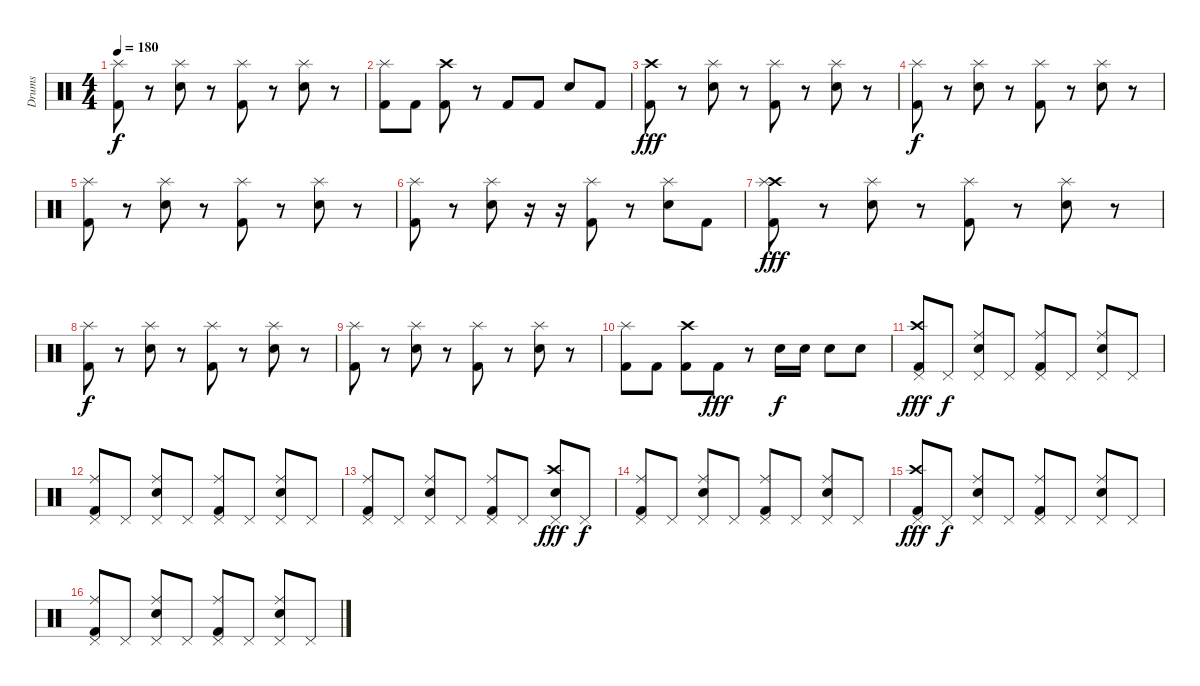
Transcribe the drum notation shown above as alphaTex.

\track ("Drums" "Drums") {instrument percussion}
\staff {score}
\articulation defaults
\ts (4 4)
\tempo 180
\clef neutral
\ks c
("Splash (hit)" "Kick (hit) 2").8{dy f} r.8 ("Splash (hit)" "Electric Snare (hit)").8 r.8 ("Splash (hit)" "Kick (hit) 2").8 r.8 ("Splash (hit)" "Electric Snare (hit)").8 r.8 |
("Splash (hit)" "Kick (hit) 2").8 "Kick (hit) 2".8 ("Crash high (hit)" "Kick (hit) 2").8 r.8 "Kick (hit) 2".8 "Kick (hit) 2".8 "Electric Snare (hit)".8 "Kick (hit) 2".8 |
("Crash high (hit)" "Kick (hit) 2").8{dy fff} r.8 ("Splash (hit)" "Electric Snare (hit)").8 r.8 ("Splash (hit)" "Kick (hit) 2").8 r.8 ("Splash (hit)" "Electric Snare (hit)").8 r.8 |
("Splash (hit)" "Kick (hit) 2").8{dy f} r.8 ("Splash (hit)" "Electric Snare (hit)").8 r.8 ("Splash (hit)" "Kick (hit) 2").8 r.8 ("Splash (hit)" "Electric Snare (hit)").8 r.8 |
("Splash (hit)" "Kick (hit) 2").8 r.8 ("Splash (hit)" "Electric Snare (hit)").8 r.8 ("Splash (hit)" "Kick (hit) 2").8 r.8 ("Splash (hit)" "Electric Snare (hit)").8 r.8 |
("Splash (hit)" "Kick (hit) 2").8 r.8 ("Splash (hit)" "Electric Snare (hit)").8 r.16 r.16 ("Splash (hit)" "Kick (hit) 2").8 r.8 ("Splash (hit)" "Electric Snare (hit)").8 "Kick (hit) 2".8 |
("Crash high (hit)" "Splash (hit)" "Kick (hit) 2").8{dy fff} r.8 ("Splash (hit)" "Electric Snare (hit)").8 r.8 ("Splash (hit)" "Kick (hit) 2").8 r.8 ("Splash (hit)" "Electric Snare (hit)").8 r.8 |
("Splash (hit)" "Kick (hit) 2").8{dy f} r.8 ("Splash (hit)" "Electric Snare (hit)").8 r.8 ("Splash (hit)" "Kick (hit) 2").8 r.8 ("Splash (hit)" "Electric Snare (hit)").8 r.8 |
("Splash (hit)" "Kick (hit) 2").8 r.8 ("Splash (hit)" "Electric Snare (hit)").8 r.8 ("Splash (hit)" "Kick (hit) 2").8 r.8 ("Splash (hit)" "Electric Snare (hit)").8 r.8 |
("Splash (hit)" "Kick (hit) 2").8 "Kick (hit) 2".8 ("Crash high (hit)" "Kick (hit) 2").8 "Kick (hit) 2".8{dy fff} r.8 "Electric Snare (hit)".16{dy f} "Electric Snare (hit)".16 "Electric Snare (hit)".8 "Electric Snare (hit)".8 |
("Crash high (hit)" "Pedal Hi-Hat (hit)" "Kick (hit) 2").8{dy fff} "Pedal Hi-Hat (hit)".8{dy f} ("Ride (middle)" "Pedal Hi-Hat (hit)" "Electric Snare (hit)").8 "Pedal Hi-Hat (hit)".8 ("Ride (middle)" "Pedal Hi-Hat (hit)" "Kick (hit) 2").8 "Pedal Hi-Hat (hit)".8 ("Ride (middle)" "Pedal Hi-Hat (hit)" "Electric Snare (hit)").8 "Pedal Hi-Hat (hit)".8 |
("Ride (middle)" "Pedal Hi-Hat (hit)" "Kick (hit) 2").8 "Pedal Hi-Hat (hit)".8 ("Ride (middle)" "Pedal Hi-Hat (hit)" "Electric Snare (hit)").8 "Pedal Hi-Hat (hit)".8 ("Ride (middle)" "Pedal Hi-Hat (hit)" "Kick (hit) 2").8 "Pedal Hi-Hat (hit)".8 ("Ride (middle)" "Pedal Hi-Hat (hit)" "Electric Snare (hit)").8 "Pedal Hi-Hat (hit)".8 |
("Ride (middle)" "Pedal Hi-Hat (hit)" "Kick (hit) 2").8 "Pedal Hi-Hat (hit)".8 ("Ride (middle)" "Pedal Hi-Hat (hit)" "Electric Snare (hit)").8 "Pedal Hi-Hat (hit)".8 ("Ride (middle)" "Pedal Hi-Hat (hit)" "Kick (hit) 2").8 "Pedal Hi-Hat (hit)".8 ("Crash high (hit)" "Pedal Hi-Hat (hit)" "Electric Snare (hit)").8{dy fff} "Pedal Hi-Hat (hit)".8{dy f} |
("Ride (middle)" "Pedal Hi-Hat (hit)" "Kick (hit) 2").8 "Pedal Hi-Hat (hit)".8 ("Ride (middle)" "Pedal Hi-Hat (hit)" "Electric Snare (hit)").8 "Pedal Hi-Hat (hit)".8 ("Ride (middle)" "Pedal Hi-Hat (hit)" "Kick (hit) 2").8 "Pedal Hi-Hat (hit)".8 ("Ride (middle)" "Pedal Hi-Hat (hit)" "Electric Snare (hit)").8 "Pedal Hi-Hat (hit)".8 |
("Crash high (hit)" "Pedal Hi-Hat (hit)" "Kick (hit) 2").8{dy fff} "Pedal Hi-Hat (hit)".8{dy f} ("Ride (middle)" "Pedal Hi-Hat (hit)" "Electric Snare (hit)").8 "Pedal Hi-Hat (hit)".8 ("Ride (middle)" "Pedal Hi-Hat (hit)" "Kick (hit) 2").8 "Pedal Hi-Hat (hit)".8 ("Ride (middle)" "Pedal Hi-Hat (hit)" "Electric Snare (hit)").8 "Pedal Hi-Hat (hit)".8 |
("Ride (middle)" "Pedal Hi-Hat (hit)" "Kick (hit) 2").8 "Pedal Hi-Hat (hit)".8 ("Ride (middle)" "Pedal Hi-Hat (hit)" "Electric Snare (hit)").8 "Pedal Hi-Hat (hit)".8 ("Ride (middle)" "Pedal Hi-Hat (hit)" "Kick (hit) 2").8 "Pedal Hi-Hat (hit)".8 ("Ride (middle)" "Pedal Hi-Hat (hit)" "Electric Snare (hit)").8 "Pedal Hi-Hat (hit)".8
